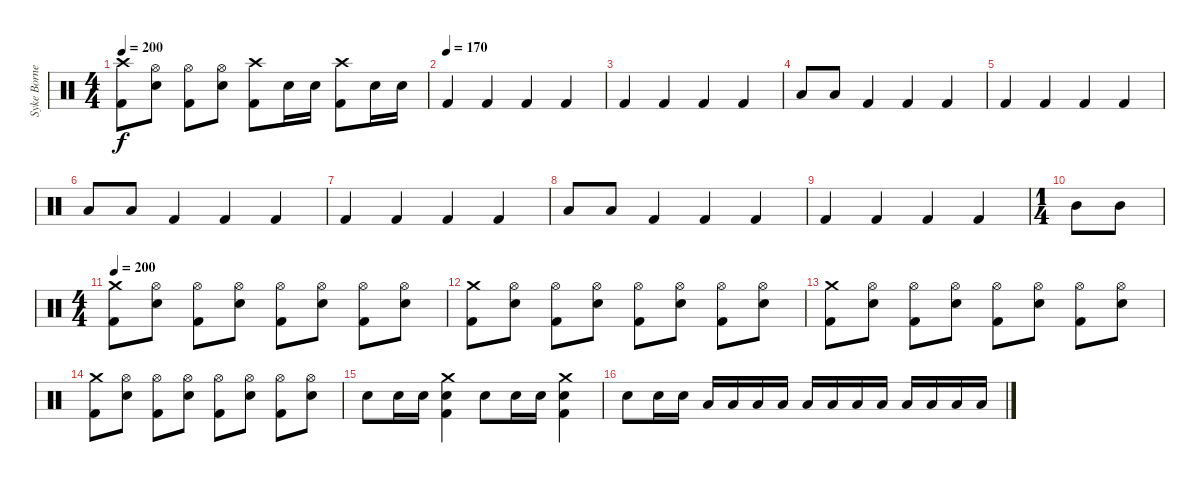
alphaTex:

\track ("Syke Bornetto (Drums)" "Syke Borne") {instrument percussion}
\staff {score}
\articulation defaults
\ts (4 4)
\tempo 200
\clef neutral
\ks c
("Crash high (hit)" "Kick (hit) 2").8{dy f} ("Hi-Hat (open)" "Electric Snare (hit)").8 ("Hi-Hat (open)" "Kick (hit) 2").8 ("Hi-Hat (open)" "Electric Snare (hit)").8 ("Crash high (hit)" "Kick (hit) 2").8 "Electric Snare (hit)".16 "Electric Snare (hit)".16 ("Crash high (hit)" "Kick (hit) 2").8 "Electric Snare (hit)".16 "Electric Snare (hit)".16 |
\tempo (170)
"Kick (hit) 2".4 "Kick (hit) 2".4 "Kick (hit) 2".4 "Kick (hit) 2".4 |
"Kick (hit) 2".4 "Kick (hit) 2".4 "Kick (hit) 2".4 "Kick (hit) 2".4 |
"Low Tom (hit)".8 "Low Tom (hit)".8 "Kick (hit) 2".4 "Kick (hit) 2".4 "Kick (hit) 2".4 |
"Kick (hit) 2".4 "Kick (hit) 2".4 "Kick (hit) 2".4 "Kick (hit) 2".4 |
"Low Tom (hit)".8 "Low Tom (hit)".8 "Kick (hit) 2".4 "Kick (hit) 2".4 "Kick (hit) 2".4 |
"Kick (hit) 2".4 "Kick (hit) 2".4 "Kick (hit) 2".4 "Kick (hit) 2".4 |
"Low Tom (hit)".8 "Low Tom (hit)".8 "Kick (hit) 2".4 "Kick (hit) 2".4 "Kick (hit) 2".4 |
"Kick (hit) 2".4 "Kick (hit) 2".4 "Kick (hit) 2".4 "Kick (hit) 2".4 |
\ts (1 4)
"Mid Tom (hit)".8 "Mid Tom (hit)".8 |
\ts (4 4)
\tempo 200
("Crash medium (hit)" "Kick (hit) 2").8 ("Electric Snare (hit)" "Hi-Hat (open)").8 ("Kick (hit) 2" "Hi-Hat (open)").8 ("Electric Snare (hit)" "Hi-Hat (open)").8 ("Kick (hit) 2" "Hi-Hat (open)").8 ("Electric Snare (hit)" "Hi-Hat (open)").8 ("Kick (hit) 2" "Hi-Hat (open)").8 ("Electric Snare (hit)" "Hi-Hat (open)").8 |
("Crash medium (hit)" "Kick (hit) 2").8 ("Electric Snare (hit)" "Hi-Hat (open)").8 ("Kick (hit) 2" "Hi-Hat (open)").8 ("Electric Snare (hit)" "Hi-Hat (open)").8 ("Kick (hit) 2" "Hi-Hat (open)").8 ("Electric Snare (hit)" "Hi-Hat (open)").8 ("Kick (hit) 2" "Hi-Hat (open)").8 ("Electric Snare (hit)" "Hi-Hat (open)").8 |
("Crash medium (hit)" "Kick (hit) 2").8 ("Electric Snare (hit)" "Hi-Hat (open)").8 ("Kick (hit) 2" "Hi-Hat (open)").8 ("Electric Snare (hit)" "Hi-Hat (open)").8 ("Kick (hit) 2" "Hi-Hat (open)").8 ("Electric Snare (hit)" "Hi-Hat (open)").8 ("Kick (hit) 2" "Hi-Hat (open)").8 ("Electric Snare (hit)" "Hi-Hat (open)").8 |
("Crash medium (hit)" "Kick (hit) 2").8 ("Electric Snare (hit)" "Hi-Hat (open)").8 ("Kick (hit) 2" "Hi-Hat (open)").8 ("Electric Snare (hit)" "Hi-Hat (open)").8 ("Kick (hit) 2" "Hi-Hat (open)").8 ("Electric Snare (hit)" "Hi-Hat (open)").8 ("Kick (hit) 2" "Hi-Hat (open)").8 ("Electric Snare (hit)" "Hi-Hat (open)").8 |
"Electric Snare (hit)".8 "Electric Snare (hit)".16 "Electric Snare (hit)".16 ("Crash medium (hit)" "Electric Snare (hit)" "Kick (hit) 2").4 "Electric Snare (hit)".8 "Electric Snare (hit)".16 "Electric Snare (hit)".16 ("Crash medium (hit)" "Electric Snare (hit)" "Kick (hit) 2").4 |
"Electric Snare (hit)".8 "Electric Snare (hit)".16 "Electric Snare (hit)".16 "Low Floor Tom (hit)".16 "Low Floor Tom (hit)".16 "Low Floor Tom (hit)".16 "Low Floor Tom (hit)".16 "Low Floor Tom (hit)".16 "Low Floor Tom (hit)".16 "Low Floor Tom (hit)".16 "Low Floor Tom (hit)".16 "Low Floor Tom (hit)".16 "Low Floor Tom (hit)".16 "Low Floor Tom (hit)".16 "Low Floor Tom (hit)".16
